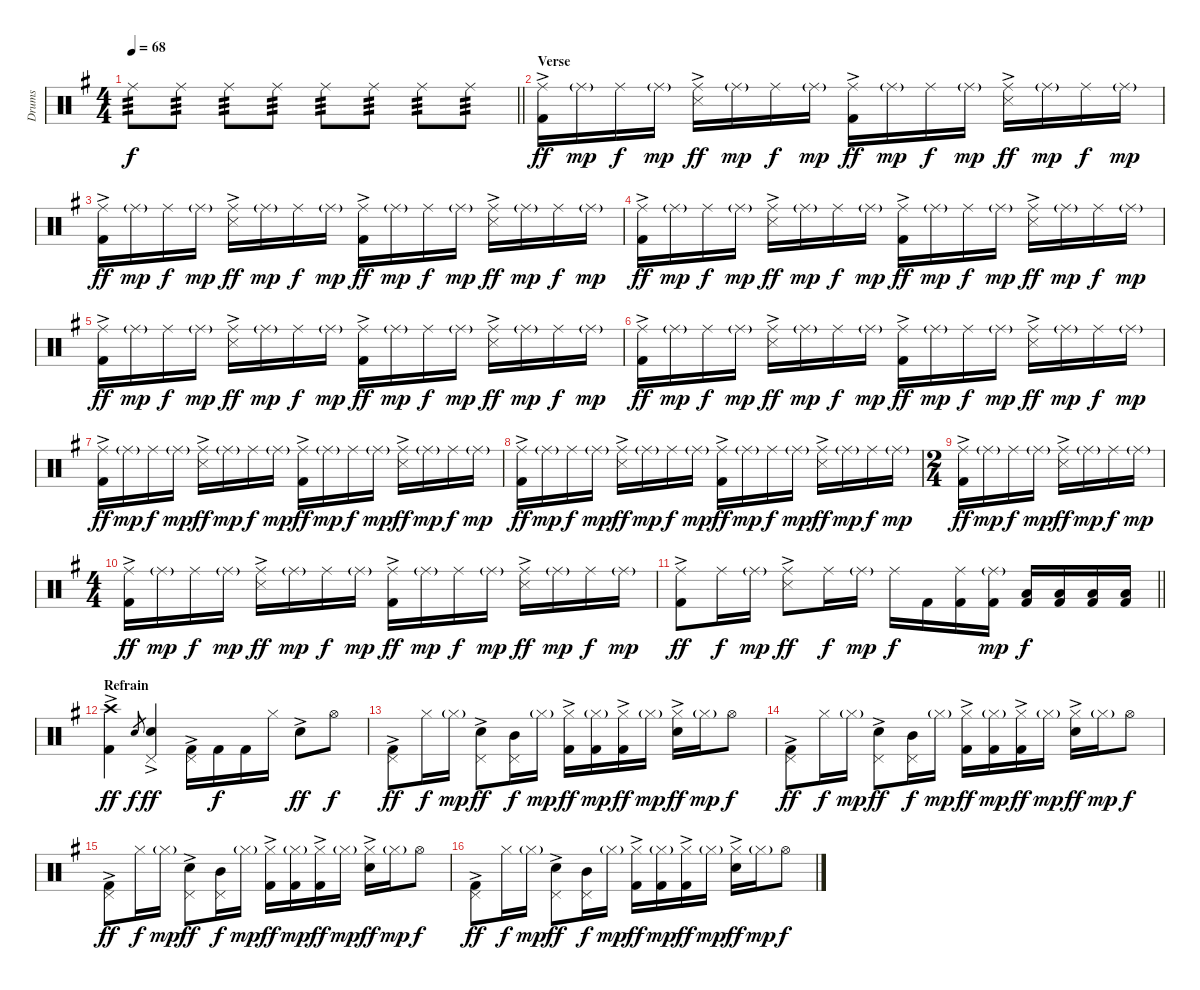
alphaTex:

\track ("Drums" "Drums") {instrument percussion}
\staff {score}
\articulation defaults
\ts (4 4)
\tempo 68
\clef neutral
\barLineRight lightlight
\ks g "Ride (middle)".8{tp 3 dy f volume 0} "Ride (middle)".8{tp 3} "Ride (middle)".8{tp 3 volume 11} "Ride (middle)".8{tp 3} "Ride (middle)".8{tp 3} "Ride (middle)".8{tp 3} "Ride (middle)".8{tp 3} "Ride (middle)".8{tp 3}
|
\section ("" "Verse")
("Ride (middle)" "Kick (hit) 2"{ac}).16{dy ff} "Ride (middle)"{g}.16{dy mp} "Ride (middle)".16{dy f} "Ride (middle)"{g}.16{dy mp} ("Ride (middle)" "Snare (side stick) 3"{ac}).16{dy ff} "Ride (middle)"{g}.16{dy mp} "Ride (middle)".16{dy f} "Ride (middle)"{g}.16{dy mp} ("Ride (middle)" "Kick (hit) 2"{ac}).16{dy ff} "Ride (middle)"{g}.16{dy mp} "Ride (middle)".16{dy f} "Ride (middle)"{g}.16{dy mp} ("Ride (middle)" "Snare (side stick) 3"{ac}).16{dy ff} "Ride (middle)"{g}.16{dy mp} "Ride (middle)".16{dy f} "Ride (middle)"{g}.16{dy mp} |
("Ride (middle)" "Kick (hit) 2"{ac}).16{dy ff} "Ride (middle)"{g}.16{dy mp} "Ride (middle)".16{dy f} "Ride (middle)"{g}.16{dy mp} ("Ride (middle)" "Snare (side stick) 3"{ac}).16{dy ff} "Ride (middle)"{g}.16{dy mp} "Ride (middle)".16{dy f} "Ride (middle)"{g}.16{dy mp} ("Ride (middle)" "Kick (hit) 2"{ac}).16{dy ff} "Ride (middle)"{g}.16{dy mp} "Ride (middle)".16{dy f} "Ride (middle)"{g}.16{dy mp} ("Ride (middle)" "Snare (side stick) 3"{ac}).16{dy ff} "Ride (middle)"{g}.16{dy mp} "Ride (middle)".16{dy f} "Ride (middle)"{g}.16{dy mp} |
("Ride (middle)" "Kick (hit) 2"{ac}).16{dy ff} "Ride (middle)"{g}.16{dy mp} "Ride (middle)".16{dy f} "Ride (middle)"{g}.16{dy mp} ("Ride (middle)" "Snare (side stick) 3"{ac}).16{dy ff} "Ride (middle)"{g}.16{dy mp} "Ride (middle)".16{dy f} "Ride (middle)"{g}.16{dy mp} ("Ride (middle)" "Kick (hit) 2"{ac}).16{dy ff} "Ride (middle)"{g}.16{dy mp} "Ride (middle)".16{dy f} "Ride (middle)"{g}.16{dy mp} ("Ride (middle)" "Snare (side stick) 3"{ac}).16{dy ff} "Ride (middle)"{g}.16{dy mp} "Ride (middle)".16{dy f} "Ride (middle)"{g}.16{dy mp} |
("Ride (middle)" "Kick (hit) 2"{ac}).16{dy ff} "Ride (middle)"{g}.16{dy mp} "Ride (middle)".16{dy f} "Ride (middle)"{g}.16{dy mp} ("Ride (middle)" "Snare (side stick) 3"{ac}).16{dy ff} "Ride (middle)"{g}.16{dy mp} "Ride (middle)".16{dy f} "Ride (middle)"{g}.16{dy mp} ("Ride (middle)" "Kick (hit) 2"{ac}).16{dy ff} "Ride (middle)"{g}.16{dy mp} "Ride (middle)".16{dy f} "Ride (middle)"{g}.16{dy mp} ("Ride (middle)" "Snare (side stick) 3"{ac}).16{dy ff} "Ride (middle)"{g}.16{dy mp} "Ride (middle)".16{dy f} "Ride (middle)"{g}.16{dy mp} |
("Ride (middle)" "Kick (hit) 2"{ac}).16{dy ff} "Ride (middle)"{g}.16{dy mp} "Ride (middle)".16{dy f} "Ride (middle)"{g}.16{dy mp} ("Ride (middle)" "Snare (side stick) 3"{ac}).16{dy ff} "Ride (middle)"{g}.16{dy mp} "Ride (middle)".16{dy f} "Ride (middle)"{g}.16{dy mp} ("Ride (middle)" "Kick (hit) 2"{ac}).16{dy ff} "Ride (middle)"{g}.16{dy mp} "Ride (middle)".16{dy f} "Ride (middle)"{g}.16{dy mp} ("Ride (middle)" "Snare (side stick) 3"{ac}).16{dy ff} "Ride (middle)"{g}.16{dy mp} "Ride (middle)".16{dy f} "Ride (middle)"{g}.16{dy mp} |
("Ride (middle)" "Kick (hit) 2"{ac}).16{dy ff} "Ride (middle)"{g}.16{dy mp} "Ride (middle)".16{dy f} "Ride (middle)"{g}.16{dy mp} ("Ride (middle)" "Snare (side stick) 3"{ac}).16{dy ff} "Ride (middle)"{g}.16{dy mp} "Ride (middle)".16{dy f} "Ride (middle)"{g}.16{dy mp} ("Ride (middle)" "Kick (hit) 2"{ac}).16{dy ff} "Ride (middle)"{g}.16{dy mp} "Ride (middle)".16{dy f} "Ride (middle)"{g}.16{dy mp} ("Ride (middle)" "Snare (side stick) 3"{ac}).16{dy ff} "Ride (middle)"{g}.16{dy mp} "Ride (middle)".16{dy f} "Ride (middle)"{g}.16{dy mp} |
("Ride (middle)" "Kick (hit) 2"{ac}).16{dy ff} "Ride (middle)"{g}.16{dy mp} "Ride (middle)".16{dy f} "Ride (middle)"{g}.16{dy mp} ("Ride (middle)" "Snare (side stick) 3"{ac}).16{dy ff} "Ride (middle)"{g}.16{dy mp} "Ride (middle)".16{dy f} "Ride (middle)"{g}.16{dy mp} ("Ride (middle)" "Kick (hit) 2"{ac}).16{dy ff} "Ride (middle)"{g}.16{dy mp} "Ride (middle)".16{dy f} "Ride (middle)"{g}.16{dy mp} ("Ride (middle)" "Snare (side stick) 3"{ac}).16{dy ff} "Ride (middle)"{g}.16{dy mp} "Ride (middle)".16{dy f} "Ride (middle)"{g}.16{dy mp} |
\ts (2 4)
("Ride (middle)" "Kick (hit) 2"{ac}).16{dy ff} "Ride (middle)"{g}.16{dy mp} "Ride (middle)".16{dy f} "Ride (middle)"{g}.16{dy mp} ("Ride (middle)" "Snare (side stick) 3"{ac}).16{dy ff} "Ride (middle)"{g}.16{dy mp} "Ride (middle)".16{dy f} "Ride (middle)"{g}.16{dy mp} |
\ts (4 4)
("Ride (middle)" "Kick (hit) 2"{ac}).16{dy ff} "Ride (middle)"{g}.16{dy mp} "Ride (middle)".16{dy f} "Ride (middle)"{g}.16{dy mp} ("Ride (middle)" "Snare (side stick) 3"{ac}).16{dy ff} "Ride (middle)"{g}.16{dy mp} "Ride (middle)".16{dy f} "Ride (middle)"{g}.16{dy mp} ("Ride (middle)" "Kick (hit) 2"{ac}).16{dy ff} "Ride (middle)"{g}.16{dy mp} "Ride (middle)".16{dy f} "Ride (middle)"{g}.16{dy mp} ("Ride (middle)" "Snare (side stick) 3"{ac}).16{dy ff} "Ride (middle)"{g}.16{dy mp} "Ride (middle)".16{dy f} "Ride (middle)"{g}.16{dy mp} |
\barLineRight lightlight
("Ride (middle)" "Kick (hit) 2"{ac}).8{dy ff} "Ride (middle)".16{dy f} "Ride (middle)"{g}.16{dy mp} ("Ride (middle)" "Snare (side stick) 3"{ac}).8{dy ff} "Ride (middle)".16{dy f} "Ride (middle)"{g}.16{dy mp} "Ride (middle)".16{dy f} "Kick (hit) 2".16 ("Ride (middle)" "Kick (hit) 2").16 ("Ride (middle)"{g} "Kick (hit) 2").16{dy mp} ("Low Floor Tom (hit)" "Kick (hit) 2").16{dy f} ("Low Floor Tom (hit)" "Kick (hit) 2").16 ("Low Floor Tom (hit)" "Kick (hit) 2").16 ("Low Floor Tom (hit)" "Kick (hit) 2").16 |
\section ("" "Refrain")
("Crash high (hit)" "Kick (hit) 2"{ac}).4{dy ff} "Snare (hit) 2".8{gr dy f} ("Pedal Hi-Hat (hit)" "Snare (hit) 2"{ac}).4{dy ff} ("Pedal Hi-Hat (hit)" "Kick (hit) 2"{ac}).16 "Kick (hit) 2".16{dy f} "Kick (hit) 2".16 "Hi-Hat (closed)".16 "Snare (hit) 2"{ac}.8{dy ff} "Hi-Hat (open)".8{dy f} |
("Pedal Hi-Hat (hit)" "Kick (hit) 2"{ac}).8{dy ff} "Hi-Hat (closed)".16{dy f} "Hi-Hat (closed)"{g}.16{dy mp} ("Pedal Hi-Hat (hit)" "Snare (hit) 2"{ac}).8{dy ff} ("Pedal Hi-Hat (hit)" "Mid Tom (hit)").16{dy f} "Hi-Hat (closed)"{g}.16{dy mp} ("Hi-Hat (closed)" "Kick (hit) 2"{ac}).16{dy ff} ("Hi-Hat (closed)"{g} "Kick (hit) 2").16{dy mp} ("Hi-Hat (closed)" "Kick (hit) 2"{ac}).16{dy ff} "Hi-Hat (closed)"{g}.16{dy mp} ("Hi-Hat (closed)" "Snare (hit) 2"{ac}).16{dy ff} "Hi-Hat (closed)"{g}.16{dy mp} "Hi-Hat (open)".8{dy f} |
("Pedal Hi-Hat (hit)" "Kick (hit) 2"{ac}).8{dy ff} "Hi-Hat (closed)".16{dy f} "Hi-Hat (closed)"{g}.16{dy mp} ("Pedal Hi-Hat (hit)" "Snare (hit) 2"{ac}).8{dy ff} ("Pedal Hi-Hat (hit)" "Mid Tom (hit)").16{dy f} "Hi-Hat (closed)"{g}.16{dy mp} ("Hi-Hat (closed)" "Kick (hit) 2"{ac}).16{dy ff} ("Hi-Hat (closed)"{g} "Kick (hit) 2").16{dy mp} ("Hi-Hat (closed)" "Kick (hit) 2"{ac}).16{dy ff} "Hi-Hat (closed)"{g}.16{dy mp} ("Hi-Hat (closed)" "Snare (hit) 2"{ac}).16{dy ff} "Hi-Hat (closed)"{g}.16{dy mp} "Hi-Hat (open)".8{dy f} |
("Pedal Hi-Hat (hit)" "Kick (hit) 2"{ac}).8{dy ff} "Hi-Hat (closed)".16{dy f} "Hi-Hat (closed)"{g}.16{dy mp} ("Pedal Hi-Hat (hit)" "Snare (hit) 2"{ac}).8{dy ff} ("Pedal Hi-Hat (hit)" "Mid Tom (hit)").16{dy f} "Hi-Hat (closed)"{g}.16{dy mp} ("Hi-Hat (closed)" "Kick (hit) 2"{ac}).16{dy ff} ("Hi-Hat (closed)"{g} "Kick (hit) 2").16{dy mp} ("Hi-Hat (closed)" "Kick (hit) 2"{ac}).16{dy ff} "Hi-Hat (closed)"{g}.16{dy mp} ("Hi-Hat (closed)" "Snare (hit) 2"{ac}).16{dy ff} "Hi-Hat (closed)"{g}.16{dy mp} "Hi-Hat (open)".8{dy f} |
("Pedal Hi-Hat (hit)" "Kick (hit) 2"{ac}).8{dy ff} "Hi-Hat (closed)".16{dy f} "Hi-Hat (closed)"{g}.16{dy mp} ("Pedal Hi-Hat (hit)" "Snare (hit) 2"{ac}).8{dy ff} ("Pedal Hi-Hat (hit)" "Mid Tom (hit)").16{dy f} "Hi-Hat (closed)"{g}.16{dy mp} ("Hi-Hat (closed)" "Kick (hit) 2"{ac}).16{dy ff} ("Hi-Hat (closed)"{g} "Kick (hit) 2").16{dy mp} ("Hi-Hat (closed)" "Kick (hit) 2"{ac}).16{dy ff} "Hi-Hat (closed)"{g}.16{dy mp} ("Hi-Hat (closed)" "Snare (hit) 2"{ac}).16{dy ff} "Hi-Hat (closed)"{g}.16{dy mp} "Hi-Hat (open)".8{dy f}
